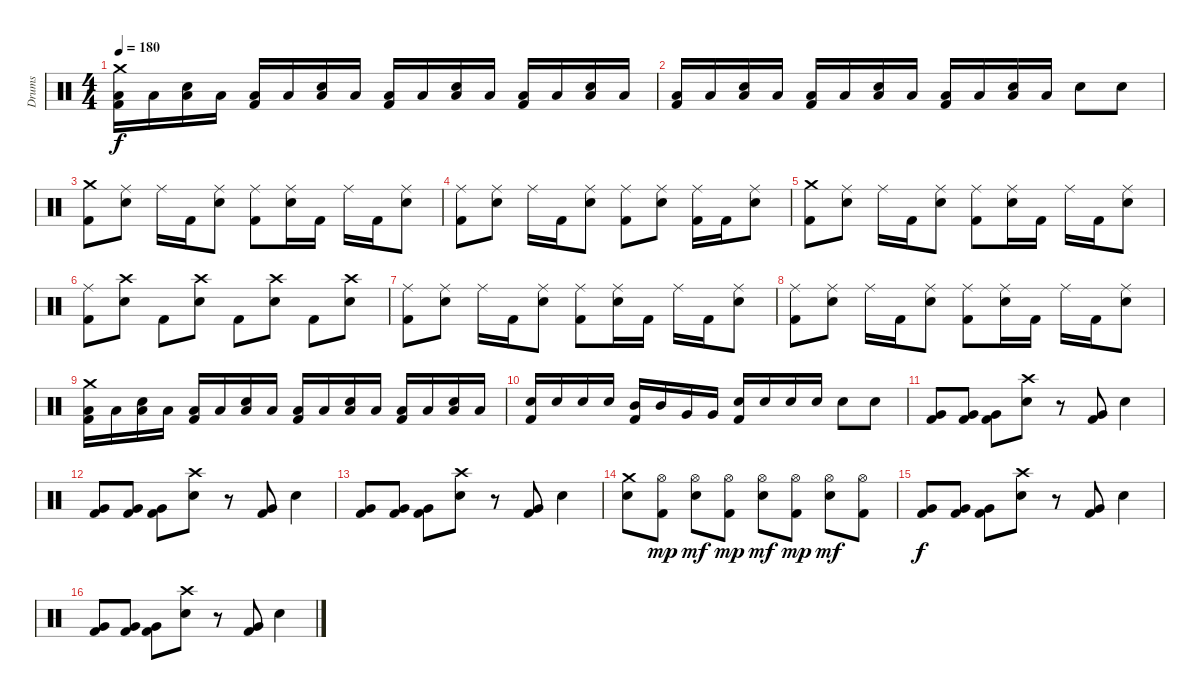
\track ("Drums" "Drums") {instrument percussion}
\staff {score}
\articulation defaults
\ts (4 4)
\tempo 180
\clef neutral
\ks c
("Crash medium (hit)" "Low Tom (hit)" "Kick (hit) 2").16{dy f} "Low Tom (hit)".16 ("Electric Snare (hit)" "Low Tom (hit)").16 "Low Tom (hit)".16 ("Low Tom (hit)" "Kick (hit) 2").16 "Low Tom (hit)".16 ("Electric Snare (hit)" "Low Tom (hit)").16 "Low Tom (hit)".16 ("Low Tom (hit)" "Kick (hit) 2").16 "Low Tom (hit)".16 ("Electric Snare (hit)" "Low Tom (hit)").16 "Low Tom (hit)".16 ("Low Tom (hit)" "Kick (hit) 2").16 "Low Tom (hit)".16 ("Electric Snare (hit)" "Low Tom (hit)").16 "Low Tom (hit)".16 |
("Low Tom (hit)" "Kick (hit) 2").16 "Low Tom (hit)".16 ("Electric Snare (hit)" "Low Tom (hit)").16 "Low Tom (hit)".16 ("Low Tom (hit)" "Kick (hit) 2").16 "Low Tom (hit)".16 ("Electric Snare (hit)" "Low Tom (hit)").16 "Low Tom (hit)".16 ("Low Tom (hit)" "Kick (hit) 2").16 "Low Tom (hit)".16 ("Electric Snare (hit)" "Low Tom (hit)").16 "Low Tom (hit)".16 "Electric Snare (hit)".8 "Electric Snare (hit)".8 |
("Crash medium (hit)" "Kick (hit) 2").8 ("Ride (middle)" "Electric Snare (hit)").8 "Ride (middle)".16 "Kick (hit) 2".16 ("Ride (middle)" "Electric Snare (hit)").8 ("Ride (middle)" "Kick (hit) 2").8 ("Ride (middle)" "Electric Snare (hit)").16 "Kick (hit) 2".16 "Ride (middle)".16 "Kick (hit) 2".16 ("Ride (middle)" "Electric Snare (hit)").8 |
("Ride (middle)" "Kick (hit) 2").8 ("Ride (middle)" "Electric Snare (hit)").8 "Ride (middle)".16 "Kick (hit) 2".16 ("Ride (middle)" "Electric Snare (hit)").8 ("Ride (middle)" "Kick (hit) 2").8 ("Ride (middle)" "Electric Snare (hit)").8 ("Ride (middle)" "Kick (hit) 2").16 "Kick (hit) 2".16 ("Ride (middle)" "Electric Snare (hit)").8 |
("Crash medium (hit)" "Kick (hit) 2").8 ("Ride (middle)" "Electric Snare (hit)").8 "Ride (middle)".16 "Kick (hit) 2".16 ("Ride (middle)" "Electric Snare (hit)").8 ("Ride (middle)" "Kick (hit) 2").8 ("Ride (middle)" "Electric Snare (hit)").16 "Kick (hit) 2".16 "Ride (middle)".16 "Kick (hit) 2".16 ("Ride (middle)" "Electric Snare (hit)").8 |
("Ride (middle)" "Kick (hit) 2").8 ("Crash high (hit)" "Electric Snare (hit)").8 "Kick (hit) 2".8 ("Crash high (hit)" "Electric Snare (hit)").8 "Kick (hit) 2".8 ("Crash high (hit)" "Electric Snare (hit)").8 "Kick (hit) 2".8 ("Crash high (hit)" "Electric Snare (hit)").8 |
("Ride (middle)" "Kick (hit) 2").8 ("Ride (middle)" "Electric Snare (hit)").8 "Ride (middle)".16 "Kick (hit) 2".16 ("Ride (middle)" "Electric Snare (hit)").8 ("Ride (middle)" "Kick (hit) 2").8 ("Ride (middle)" "Electric Snare (hit)").16 "Kick (hit) 2".16 "Ride (middle)".16 "Kick (hit) 2".16 ("Ride (middle)" "Electric Snare (hit)").8 |
("Ride (middle)" "Kick (hit) 2").8 ("Ride (middle)" "Electric Snare (hit)").8 "Ride (middle)".16 "Kick (hit) 2".16 ("Ride (middle)" "Electric Snare (hit)").8 ("Ride (middle)" "Kick (hit) 2").8 ("Ride (middle)" "Electric Snare (hit)").16 "Kick (hit) 2".16 "Ride (middle)".16 "Kick (hit) 2".16 ("Ride (middle)" "Electric Snare (hit)").8 |
("Crash medium (hit)" "Low Tom (hit)" "Kick (hit) 2").16 "Low Tom (hit)".16 ("Electric Snare (hit)" "Low Tom (hit)").16 "Low Tom (hit)".16 ("Low Tom (hit)" "Kick (hit) 2").16 "Low Tom (hit)".16 ("Electric Snare (hit)" "Low Tom (hit)").16 "Low Tom (hit)".16 ("Low Tom (hit)" "Kick (hit) 2").16 "Low Tom (hit)".16 ("Electric Snare (hit)" "Low Tom (hit)").16 "Low Tom (hit)".16 ("Low Tom (hit)" "Kick (hit) 2").16 "Low Tom (hit)".16 ("Electric Snare (hit)" "Low Tom (hit)").16 "Low Tom (hit)".16 |
("Electric Snare (hit)" "Kick (hit) 2").16 "Electric Snare (hit)".16 "Electric Snare (hit)".16 "Electric Snare (hit)".16 ("Mid Tom (hit)" "Kick (hit) 2").16 "Mid Tom (hit)".16 "Very Low Tom (hit)".16 "Very Low Tom (hit)".16 ("Electric Snare (hit)" "Kick (hit) 2").16 "Electric Snare (hit)".16 "Electric Snare (hit)".16 "Electric Snare (hit)".16 "Electric Snare (hit)".8 "Electric Snare (hit)".8 |
("Very Low Tom (hit)" "Kick (hit) 2").8 ("Very Low Tom (hit)" "Kick (hit) 2").8 ("Very Low Tom (hit)" "Kick (hit) 2").8 ("Crash high (hit)" "Electric Snare (hit)").8 r.8 ("Very Low Tom (hit)" "Kick (hit) 2").8 "Electric Snare (hit)".4 |
("Very Low Tom (hit)" "Kick (hit) 2").8 ("Very Low Tom (hit)" "Kick (hit) 2").8 ("Very Low Tom (hit)" "Kick (hit) 2").8 ("Crash high (hit)" "Electric Snare (hit)").8 r.8 ("Very Low Tom (hit)" "Kick (hit) 2").8 "Electric Snare (hit)".4 |
("Very Low Tom (hit)" "Kick (hit) 2").8 ("Very Low Tom (hit)" "Kick (hit) 2").8 ("Very Low Tom (hit)" "Kick (hit) 2").8 ("Crash high (hit)" "Electric Snare (hit)").8 r.8 ("Very Low Tom (hit)" "Kick (hit) 2").8 "Electric Snare (hit)".4 |
("Crash medium (hit)" "Electric Snare (hit)").8 ("Hi-Hat (open)" "Kick (hit) 2").8{dy mp} ("Hi-Hat (open)" "Electric Snare (hit)").8{dy mf} ("Hi-Hat (open)" "Kick (hit) 2").8{dy mp} ("Hi-Hat (open)" "Electric Snare (hit)").8{dy mf} ("Hi-Hat (open)" "Kick (hit) 2").8{dy mp} ("Hi-Hat (open)" "Electric Snare (hit)").8{dy mf} ("Hi-Hat (open)" "Kick (hit) 2").8 |
("Very Low Tom (hit)" "Kick (hit) 2").8{dy f} ("Very Low Tom (hit)" "Kick (hit) 2").8 ("Very Low Tom (hit)" "Kick (hit) 2").8 ("Crash high (hit)" "Electric Snare (hit)").8 r.8 ("Very Low Tom (hit)" "Kick (hit) 2").8 "Electric Snare (hit)".4 |
("Very Low Tom (hit)" "Kick (hit) 2").8 ("Very Low Tom (hit)" "Kick (hit) 2").8 ("Very Low Tom (hit)" "Kick (hit) 2").8 ("Crash high (hit)" "Electric Snare (hit)").8 r.8 ("Very Low Tom (hit)" "Kick (hit) 2").8 "Electric Snare (hit)".4
